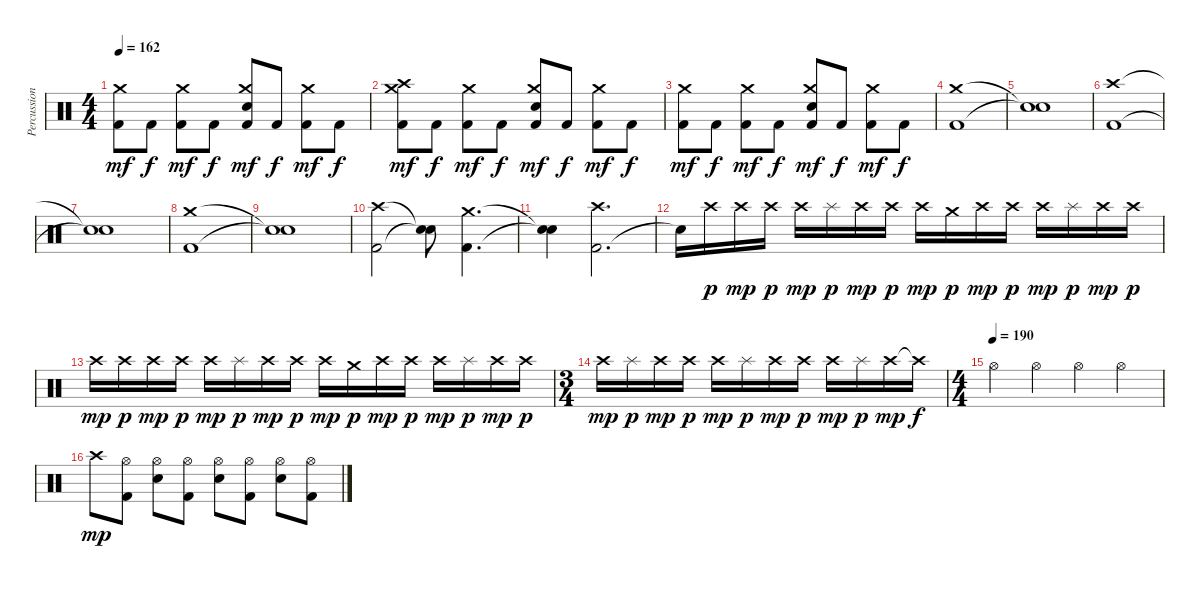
\track ("Percussion" "Percussion") {instrument percussion}
\staff {score}
\articulation defaults
\ts (4 4)
\tempo 162
\clef neutral
\ks c
("Kick (hit) 2" "Crash medium (hit)").8{dy mf} "Kick (hit) 2".8{dy f} ("Kick (hit) 2" "Crash medium (hit)").8{dy mf} "Kick (hit) 2".8{dy f} ("Kick (hit) 2" "Snare (hit) 2" "Crash medium (hit)").8{dy mf} "Kick (hit) 2".8{dy f} ("Kick (hit) 2" "Crash medium (hit)").8{dy mf} "Kick (hit) 2".8{dy f} |
("Kick (hit) 2" "Crash high (hit)" "Crash medium (hit)").8{dy mf} "Kick (hit) 2".8{dy f} ("Kick (hit) 2" "Crash medium (hit)").8{dy mf} "Kick (hit) 2".8{dy f} ("Kick (hit) 2" "Snare (hit) 2" "Crash medium (hit)").8{dy mf} "Kick (hit) 2".8{dy f} ("Kick (hit) 2" "Crash medium (hit)").8{dy mf} "Kick (hit) 2".8{dy f} |
("Kick (hit) 2" "Crash medium (hit)").8{dy mf} "Kick (hit) 2".8{dy f} ("Kick (hit) 2" "Crash medium (hit)").8{dy mf} "Kick (hit) 2".8{dy f} ("Kick (hit) 2" "Snare (hit) 2" "Crash medium (hit)").8{dy mf} "Kick (hit) 2".8{dy f} ("Kick (hit) 2" "Crash medium (hit)").8{dy mf} "Kick (hit) 2".8{dy f} |
("Kick (hit) 2" "Crash medium (hit)").1 |
("Snare (hit)"{t} "Snare (hit)"{t}).1 |
("Kick (hit) 2" "Crash high (hit)").1 |
("Snare (hit)"{t} "Snare (hit)"{t}).1 |
("Kick (hit) 2" "Crash medium (hit)").1 |
("Snare (hit)"{t} "Snare (hit)"{t}).1 |
("Kick (hit) 2" "Crash high (hit)").2 ("Snare (hit)"{t} "Snare (hit)"{t}).8 ("Kick (hit) 2" "Crash medium (hit)").4{d} |
("Snare (hit)"{t} "Snare (hit)"{t}).4 ("Kick (hit) 2" "Crash high (hit)").2{d} |
"Snare (hit)"{t}.16 "Crash high (hit)".16{dy p} "Crash high (hit)".16{dy mp} "Crash high (hit)".16{dy p} "Crash high (hit)".16{dy mp} "Splash (hit)".16{dy p} "Crash high (hit)".16{dy mp} "Crash high (hit)".16{dy p} "Crash high (hit)".16{dy mp} "Crash medium (hit)".16{dy p} "Crash high (hit)".16{dy mp} "Crash high (hit)".16{dy p} "Crash high (hit)".16{dy mp} "Splash (hit)".16{dy p} "Crash high (hit)".16{dy mp} "Crash high (hit)".16{dy p} |
"Crash high (hit)".16{dy mp} "Crash high (hit)".16{dy p} "Crash high (hit)".16{dy mp} "Crash high (hit)".16{dy p} "Crash high (hit)".16{dy mp} "Splash (hit)".16{dy p} "Crash high (hit)".16{dy mp} "Crash high (hit)".16{dy p} "Crash high (hit)".16{dy mp} "Crash medium (hit)".16{dy p} "Crash high (hit)".16{dy mp} "Crash high (hit)".16{dy p} "Crash high (hit)".16{dy mp} "Splash (hit)".16{dy p} "Crash high (hit)".16{dy mp} "Crash high (hit)".16{dy p} |
\ts (3 4)
"Crash high (hit)".16{dy mp} "Splash (hit)".16{dy p} "Crash high (hit)".16{dy mp} "Crash high (hit)".16{dy p} "Crash high (hit)".16{dy mp} "Splash (hit)".16{dy p} "Crash high (hit)".16{dy mp} "Crash high (hit)".16{dy p} "Crash high (hit)".16{dy mp} "Splash (hit)".16{dy p} "Crash high (hit)".16{dy mp} "Crash high (hit)"{t}.16{dy f} |
\ts (4 4)
\tempo (190)
"Hi-Hat (open)".4 "Hi-Hat (open)".4 "Hi-Hat (open)".4 "Hi-Hat (open)".4 |
"Crash high (hit)".8{dy mp} ("Kick (hit) 2" "Hi-Hat (open)").8 ("Snare (hit) 2" "Hi-Hat (open)").8 ("Kick (hit) 2" "Hi-Hat (open)").8 ("Snare (hit) 2" "Hi-Hat (open)").8 ("Kick (hit) 2" "Hi-Hat (open)").8 ("Snare (hit) 2" "Hi-Hat (open)").8 ("Kick (hit) 2" "Hi-Hat (open)").8
